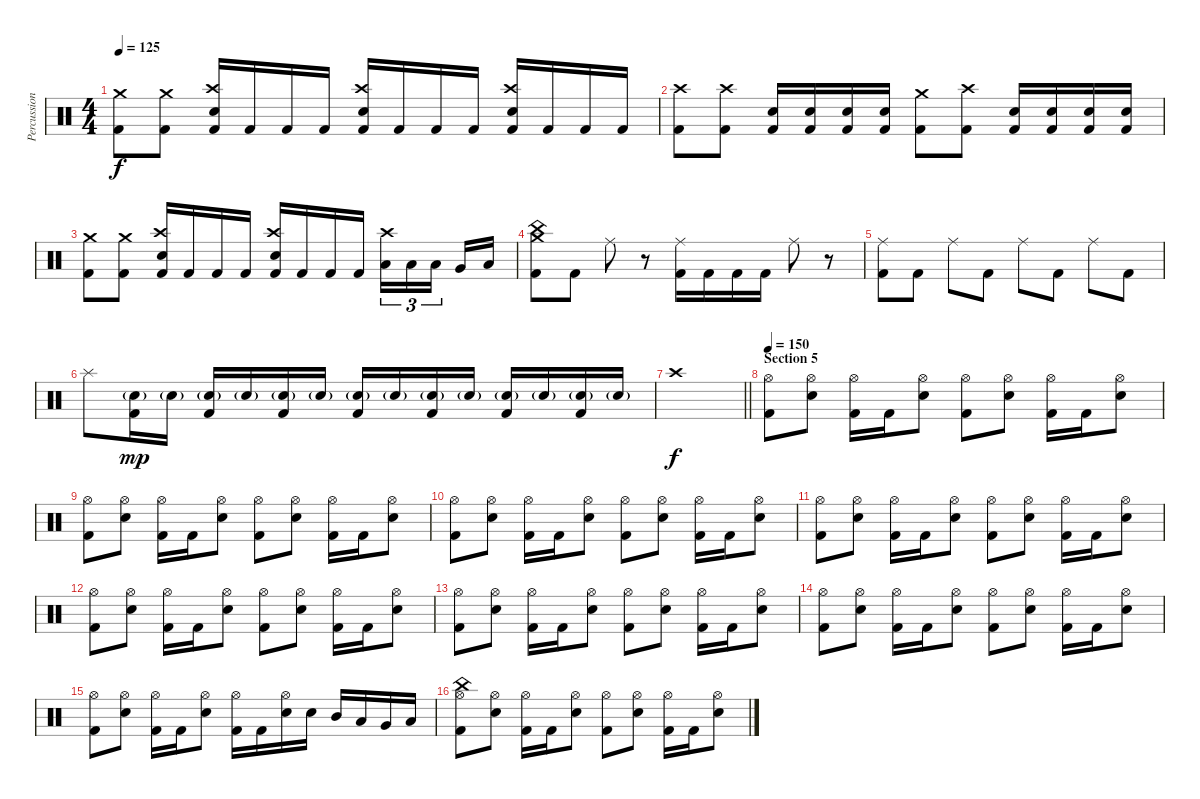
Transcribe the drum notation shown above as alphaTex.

\track ("Percussion" "Percussion") {instrument percussion}
\staff {score}
\articulation defaults
\ts (4 4)
\tempo 125
\clef neutral
\ks c
("Crash medium (hit)" "Kick (hit) 2").8{dy f} ("Crash medium (hit)" "Kick (hit) 2").8 ("Crash high (hit)" "Snare (hit) 2" "Kick (hit) 2").16 "Kick (hit) 2".16 "Kick (hit) 2".16 "Kick (hit) 2".16 ("Crash high (hit)" "Snare (hit) 2" "Kick (hit) 2").16 "Kick (hit) 2".16 "Kick (hit) 2".16 "Kick (hit) 2".16 ("Crash high (hit)" "Snare (hit) 2" "Kick (hit) 2").16 "Kick (hit) 2".16 "Kick (hit) 2".16 "Kick (hit) 2".16 |
("Crash high (hit)" "Kick (hit) 2").8 ("Crash high (hit)" "Kick (hit) 2").8 ("Snare (hit) 2" "Kick (hit) 2").16 ("Snare (hit) 2" "Kick (hit) 2").16 ("Snare (hit) 2" "Kick (hit) 2").16 ("Snare (hit) 2" "Kick (hit) 2").16 ("Crash medium (hit)" "Kick (hit) 2").8 ("Crash high (hit)" "Kick (hit) 2").8 ("Snare (hit) 2" "Kick (hit) 2").16 ("Snare (hit) 2" "Kick (hit) 2").16 ("Snare (hit) 2" "Kick (hit) 2").16 ("Snare (hit) 2" "Kick (hit) 2").16 |
("Crash medium (hit)" "Kick (hit) 2").8 ("Crash medium (hit)" "Kick (hit) 2").8 ("Crash high (hit)" "Snare (hit) 2" "Kick (hit) 2").16 "Kick (hit) 2".16 "Kick (hit) 2".16 "Kick (hit) 2".16 ("Crash high (hit)" "Snare (hit) 2" "Kick (hit) 2").16 "Kick (hit) 2".16 "Kick (hit) 2".16 "Kick (hit) 2".16 ("Crash high (hit)" "Low Tom (hit)").16{tu (3 2)} "Low Tom (hit)".16{tu (3 2)} "Low Tom (hit)".16{tu (3 2) beam splitsecondary} "Very Low Tom (hit)".16 "Low Floor Tom (hit)".16 |
("Crash medium (hit)" "China (hit)" "Kick (hit) 2").8 "Kick (hit) 2".8 "Ride (middle)".8 r.8 ("Ride (middle)" "Kick (hit) 2").16 "Kick (hit) 2".16 "Kick (hit) 2".16 "Kick (hit) 2".16 "Ride (middle)".8 r.8 |
("Ride (middle)" "Kick (hit) 2").8 "Kick (hit) 2".8 "Ride (middle)".8 "Kick (hit) 2".8 "Ride (middle)".8 "Kick (hit) 2".8 "Ride (middle)".8 "Kick (hit) 2".8 |
"Splash (hit)".8 ("Snare (hit) 2"{g} "Kick (hit) 2").16{dy mp} "Snare (hit) 2"{g}.16 ("Snare (hit) 2"{g} "Kick (hit) 2").16 "Snare (hit) 2"{g}.16 ("Snare (hit) 2"{g} "Kick (hit) 2").16 "Snare (hit) 2"{g}.16 ("Snare (hit) 2"{g} "Kick (hit) 2").16 "Snare (hit) 2"{g}.16 ("Snare (hit) 2"{g} "Kick (hit) 2").16 "Snare (hit) 2"{g}.16 ("Snare (hit) 2"{g} "Kick (hit) 2").16 "Snare (hit) 2"{g}.16 ("Snare (hit) 2"{g} "Kick (hit) 2").16 "Snare (hit) 2"{g}.16 |
\barLineRight lightlight "Crash high (hit)".1{dy f}
|
\section ("" "Section 5")
\tempo 150
("Hi-Hat (open)" "Kick (hit) 2").8 ("Hi-Hat (open)" "Snare (hit) 2").8 ("Hi-Hat (open)" "Kick (hit) 2").16 "Kick (hit) 2".16 ("Hi-Hat (open)" "Snare (hit) 2").8 ("Hi-Hat (open)" "Kick (hit) 2").8 ("Hi-Hat (open)" "Snare (hit) 2").8 ("Hi-Hat (open)" "Kick (hit) 2").16 "Kick (hit) 2".16 ("Hi-Hat (open)" "Snare (hit) 2").8 |
("Hi-Hat (open)" "Kick (hit) 2").8 ("Hi-Hat (open)" "Snare (hit) 2").8 ("Hi-Hat (open)" "Kick (hit) 2").16 "Kick (hit) 2".16 ("Hi-Hat (open)" "Snare (hit) 2").8 ("Hi-Hat (open)" "Kick (hit) 2").8 ("Hi-Hat (open)" "Snare (hit) 2").8 ("Hi-Hat (open)" "Kick (hit) 2").16 "Kick (hit) 2".16 ("Hi-Hat (open)" "Snare (hit) 2").8 |
("Hi-Hat (open)" "Kick (hit) 2").8 ("Hi-Hat (open)" "Snare (hit) 2").8 ("Hi-Hat (open)" "Kick (hit) 2").16 "Kick (hit) 2".16 ("Hi-Hat (open)" "Snare (hit) 2").8 ("Hi-Hat (open)" "Kick (hit) 2").8 ("Hi-Hat (open)" "Snare (hit) 2").8 ("Hi-Hat (open)" "Kick (hit) 2").16 "Kick (hit) 2".16 ("Hi-Hat (open)" "Snare (hit) 2").8 |
("Hi-Hat (open)" "Kick (hit) 2").8 ("Hi-Hat (open)" "Snare (hit) 2").8 ("Hi-Hat (open)" "Kick (hit) 2").16 "Kick (hit) 2".16 ("Hi-Hat (open)" "Snare (hit) 2").8 ("Hi-Hat (open)" "Kick (hit) 2").8 ("Hi-Hat (open)" "Snare (hit) 2").8 ("Hi-Hat (open)" "Kick (hit) 2").16 "Kick (hit) 2".16 ("Hi-Hat (open)" "Snare (hit) 2").8 |
("Hi-Hat (open)" "Kick (hit) 2").8 ("Hi-Hat (open)" "Snare (hit) 2").8 ("Hi-Hat (open)" "Kick (hit) 2").16 "Kick (hit) 2".16 ("Hi-Hat (open)" "Snare (hit) 2").8 ("Hi-Hat (open)" "Kick (hit) 2").8 ("Hi-Hat (open)" "Snare (hit) 2").8 ("Hi-Hat (open)" "Kick (hit) 2").16 "Kick (hit) 2".16 ("Hi-Hat (open)" "Snare (hit) 2").8 |
("Hi-Hat (open)" "Kick (hit) 2").8 ("Hi-Hat (open)" "Snare (hit) 2").8 ("Hi-Hat (open)" "Kick (hit) 2").16 "Kick (hit) 2".16 ("Hi-Hat (open)" "Snare (hit) 2").8 ("Hi-Hat (open)" "Kick (hit) 2").8 ("Hi-Hat (open)" "Snare (hit) 2").8 ("Hi-Hat (open)" "Kick (hit) 2").16 "Kick (hit) 2".16 ("Hi-Hat (open)" "Snare (hit) 2").8 |
("Hi-Hat (open)" "Kick (hit) 2").8 ("Hi-Hat (open)" "Snare (hit) 2").8 ("Hi-Hat (open)" "Kick (hit) 2").16 "Kick (hit) 2".16 ("Hi-Hat (open)" "Snare (hit) 2").8 ("Hi-Hat (open)" "Kick (hit) 2").8 ("Hi-Hat (open)" "Snare (hit) 2").8 ("Hi-Hat (open)" "Kick (hit) 2").16 "Kick (hit) 2".16 ("Hi-Hat (open)" "Snare (hit) 2").8 |
("Hi-Hat (open)" "Kick (hit) 2").8 ("Hi-Hat (open)" "Snare (hit) 2").8 ("Hi-Hat (open)" "Kick (hit) 2").16 "Kick (hit) 2".16 ("Hi-Hat (open)" "Snare (hit) 2").8 ("Hi-Hat (open)" "Kick (hit) 2").16 "Kick (hit) 2".16 ("Hi-Hat (open)" "Snare (hit) 2").16 "Snare (hit) 2".16 "Mid Tom (hit)".16 "Low Tom (hit)".16 "Very Low Tom (hit)".16 "Low Floor Tom (hit)".16 |
("China (hit)" "Hi-Hat (open)" "Kick (hit) 2").8 ("Hi-Hat (open)" "Snare (hit) 2").8 ("Hi-Hat (open)" "Kick (hit) 2").16 "Kick (hit) 2".16 ("Hi-Hat (open)" "Snare (hit) 2").8 ("Hi-Hat (open)" "Kick (hit) 2").8 ("Hi-Hat (open)" "Snare (hit) 2").8 ("Hi-Hat (open)" "Kick (hit) 2").16 "Kick (hit) 2".16 ("Hi-Hat (open)" "Snare (hit) 2").8
